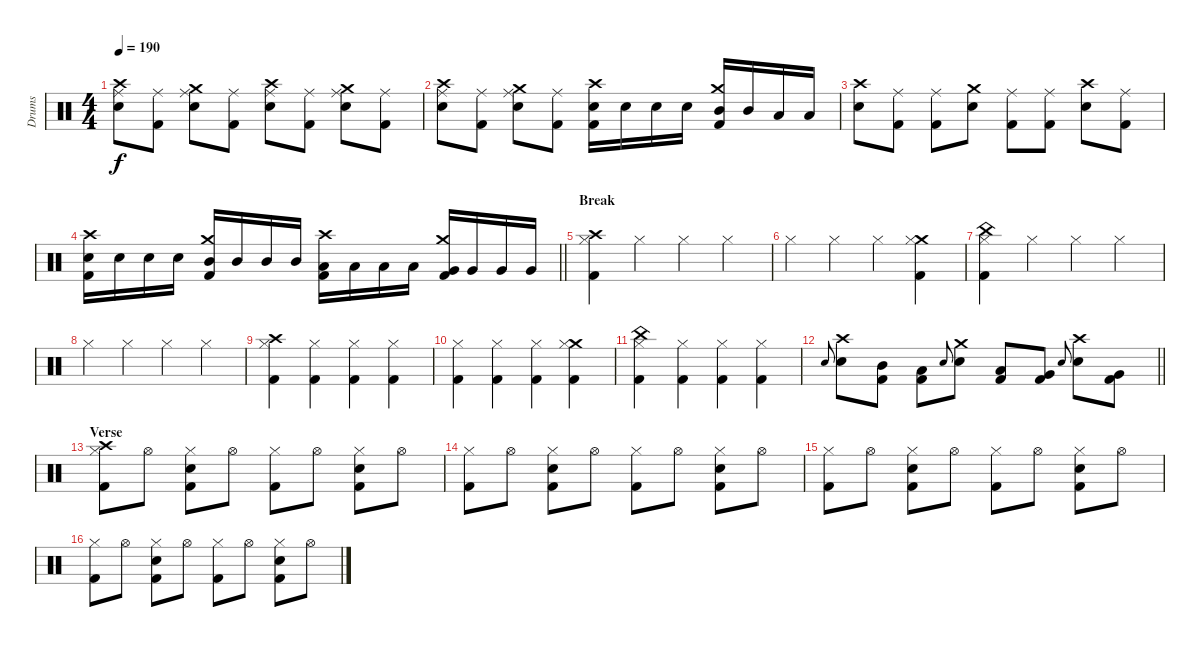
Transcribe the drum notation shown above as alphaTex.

\track ("Drums" "Drums") {instrument percussion}
\staff {score}
\articulation defaults
\ts (4 4)
\tempo 190
\clef neutral
\ks c
("Crash high (hit)" "Ride (middle)" "Snare (hit) 2").8{dy f} ("Ride (middle)" "Kick (hit) 2").8 ("Crash medium (hit)" "Ride (middle)" "Snare (hit) 2").8 ("Ride (middle)" "Kick (hit) 2").8 ("Crash high (hit)" "Ride (middle)" "Snare (hit) 2").8 ("Ride (middle)" "Kick (hit) 2").8 ("Crash medium (hit)" "Ride (middle)" "Snare (hit) 2").8 ("Ride (middle)" "Kick (hit) 2").8 |
("Crash high (hit)" "Ride (middle)" "Snare (hit) 2").8 ("Ride (middle)" "Kick (hit) 2").8 ("Crash medium (hit)" "Ride (middle)" "Snare (hit) 2").8 ("Ride (middle)" "Kick (hit) 2").8 ("Crash high (hit)" "Snare (hit) 2" "Kick (hit) 2").16 "Snare (hit) 2".16 "Snare (hit) 2".16 "Snare (hit) 2".16 ("Crash medium (hit)" "Mid Tom (hit)" "Kick (hit) 2").16 "Mid Tom (hit)".16 "Low Tom (hit)".16 "Low Tom (hit)".16 |
("Crash high (hit)" "Snare (hit) 2").8 ("Ride (middle)" "Kick (hit) 2").8 ("Ride (middle)" "Kick (hit) 2").8 ("Crash medium (hit)" "Snare (hit) 2").8 ("Ride (middle)" "Kick (hit) 2").8 ("Ride (middle)" "Kick (hit) 2").8 ("Crash high (hit)" "Snare (hit) 2").8 ("Ride (middle)" "Kick (hit) 2").8 |
\barLineRight lightlight
("Crash high (hit)" "Snare (hit) 2" "Kick (hit) 2").16 "Snare (hit) 2".16 "Snare (hit) 2".16 "Snare (hit) 2".16 ("Crash medium (hit)" "Mid Tom (hit)" "Kick (hit) 2").16 "Mid Tom (hit)".16 "Mid Tom (hit)".16 "Mid Tom (hit)".16 ("Crash high (hit)" "Low Tom (hit)" "Kick (hit) 2").16 "Low Tom (hit)".16 "Low Tom (hit)".16 "Low Tom (hit)".16 ("Crash medium (hit)" "Very Low Tom (hit)" "Kick (hit) 2").16 "Very Low Tom (hit)".16 "Very Low Tom (hit)".16 "Very Low Tom (hit)".16 |
\section ("" "Break")
("Crash high (hit)" "Hi-Hat (closed)" "Kick (hit) 2").4 "Hi-Hat (closed)".4 "Hi-Hat (closed)".4 "Hi-Hat (closed)".4 |
"Hi-Hat (closed)".4 "Hi-Hat (closed)".4 "Hi-Hat (closed)".4 ("Crash medium (hit)" "Hi-Hat (closed)" "Kick (hit) 2").4 |
("China (hit)" "Hi-Hat (closed)" "Kick (hit) 2").4 "Hi-Hat (closed)".4 "Hi-Hat (closed)".4 "Hi-Hat (closed)".4 |
"Hi-Hat (closed)".4 "Hi-Hat (closed)".4 "Hi-Hat (closed)".4 "Hi-Hat (closed)".4 |
("Crash high (hit)" "Hi-Hat (closed)" "Kick (hit) 2").4 ("Hi-Hat (closed)" "Kick (hit) 2").4 ("Hi-Hat (closed)" "Kick (hit) 2").4 ("Hi-Hat (closed)" "Kick (hit) 2").4 |
("Hi-Hat (closed)" "Kick (hit) 2").4 ("Hi-Hat (closed)" "Kick (hit) 2").4 ("Hi-Hat (closed)" "Kick (hit) 2").4 ("Crash medium (hit)" "Hi-Hat (closed)" "Kick (hit) 2").4 |
("China (hit)" "Hi-Hat (closed)" "Kick (hit) 2").4 ("Hi-Hat (closed)" "Kick (hit) 2").4 ("Hi-Hat (closed)" "Kick (hit) 2").4 ("Hi-Hat (closed)" "Kick (hit) 2").4 |
\barLineRight lightlight "Snare (hit) 2".8{gr onbeat}
("Crash high (hit)" "Snare (hit) 2").8 ("Mid Tom (hit)" "Kick (hit) 2").8 ("Low Tom (hit)" "Kick (hit) 2").8 "Snare (hit) 2".8{gr onbeat} ("Crash medium (hit)" "Snare (hit) 2").8 ("Low Tom (hit)" "Kick (hit) 2").8 ("Very Low Tom (hit)" "Kick (hit) 2").8 "Snare (hit) 2".8{gr onbeat} ("Crash high (hit)" "Snare (hit) 2").8 ("Very Low Tom (hit)" "Kick (hit) 2").8 |
\section ("" "Verse")
("Crash high (hit)" "Hi-Hat (closed)" "Kick (hit) 2").8 "Hi-Hat (open)".8 ("Hi-Hat (closed)" "Snare (hit) 2" "Kick (hit) 2").8 "Hi-Hat (open)".8 ("Hi-Hat (closed)" "Kick (hit) 2").8 "Hi-Hat (open)".8 ("Hi-Hat (closed)" "Snare (hit) 2" "Kick (hit) 2").8 "Hi-Hat (open)".8 |
("Hi-Hat (closed)" "Kick (hit) 2").8 "Hi-Hat (open)".8 ("Hi-Hat (closed)" "Snare (hit) 2" "Kick (hit) 2").8 "Hi-Hat (open)".8 ("Hi-Hat (closed)" "Kick (hit) 2").8 "Hi-Hat (open)".8 ("Hi-Hat (closed)" "Snare (hit) 2" "Kick (hit) 2").8 "Hi-Hat (open)".8 |
("Hi-Hat (closed)" "Kick (hit) 2").8 "Hi-Hat (open)".8 ("Hi-Hat (closed)" "Snare (hit) 2" "Kick (hit) 2").8 "Hi-Hat (open)".8 ("Hi-Hat (closed)" "Kick (hit) 2").8 "Hi-Hat (open)".8 ("Hi-Hat (closed)" "Snare (hit) 2" "Kick (hit) 2").8 "Hi-Hat (open)".8 |
("Hi-Hat (closed)" "Kick (hit) 2").8 "Hi-Hat (open)".8 ("Hi-Hat (closed)" "Snare (hit) 2" "Kick (hit) 2").8 "Hi-Hat (open)".8 ("Hi-Hat (closed)" "Kick (hit) 2").8 "Hi-Hat (open)".8 ("Hi-Hat (closed)" "Snare (hit) 2" "Kick (hit) 2").8 "Hi-Hat (open)".8
